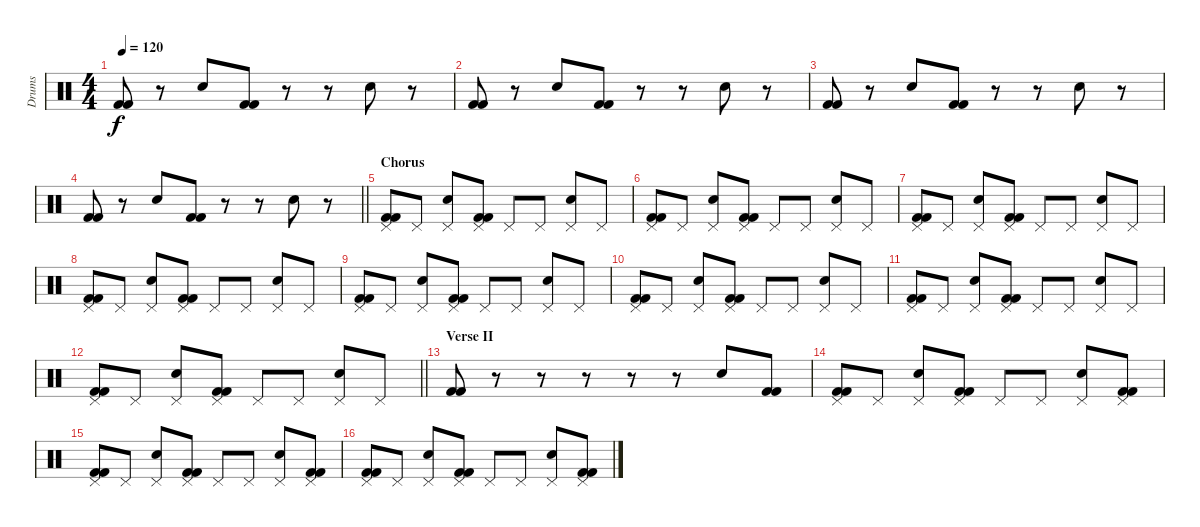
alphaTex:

\track ("Drums" "Drums") {instrument percussion}
\staff {score}
\articulation defaults
\ts (4 4)
\tempo 120
\clef neutral
\ks c
("Kick (hit) 2" "Kick (hit) 2").8{dy f} r.8 "Electric Snare (hit)".8 ("Kick (hit) 2" "Kick (hit) 2").8 r.8 r.8 "Electric Snare (hit)".8 r.8 |
("Kick (hit) 2" "Kick (hit) 2").8 r.8 "Electric Snare (hit)".8 ("Kick (hit) 2" "Kick (hit) 2").8 r.8 r.8 "Electric Snare (hit)".8 r.8 |
("Kick (hit) 2" "Kick (hit) 2").8 r.8 "Electric Snare (hit)".8 ("Kick (hit) 2" "Kick (hit) 2").8 r.8 r.8 "Electric Snare (hit)".8 r.8 |
\barLineRight lightlight
("Kick (hit) 2" "Kick (hit) 2").8 r.8 "Electric Snare (hit)".8 ("Kick (hit) 2" "Kick (hit) 2").8 r.8 r.8 "Electric Snare (hit)".8 r.8 |
\section ("" "Chorus ")
("Pedal Hi-Hat (hit)" "Kick (hit) 2" "Kick (hit) 2").8 "Pedal Hi-Hat (hit)".8 ("Electric Snare (hit)" "Pedal Hi-Hat (hit)").8 ("Pedal Hi-Hat (hit)" "Kick (hit) 2" "Kick (hit) 2").8 "Pedal Hi-Hat (hit)".8 "Pedal Hi-Hat (hit)".8 ("Electric Snare (hit)" "Pedal Hi-Hat (hit)").8 "Pedal Hi-Hat (hit)".8 |
("Pedal Hi-Hat (hit)" "Kick (hit) 2" "Kick (hit) 2").8 "Pedal Hi-Hat (hit)".8 ("Electric Snare (hit)" "Pedal Hi-Hat (hit)").8 ("Pedal Hi-Hat (hit)" "Kick (hit) 2" "Kick (hit) 2").8 "Pedal Hi-Hat (hit)".8 "Pedal Hi-Hat (hit)".8 ("Electric Snare (hit)" "Pedal Hi-Hat (hit)").8 "Pedal Hi-Hat (hit)".8 |
("Pedal Hi-Hat (hit)" "Kick (hit) 2" "Kick (hit) 2").8 "Pedal Hi-Hat (hit)".8 ("Electric Snare (hit)" "Pedal Hi-Hat (hit)").8 ("Pedal Hi-Hat (hit)" "Kick (hit) 2" "Kick (hit) 2").8 "Pedal Hi-Hat (hit)".8 "Pedal Hi-Hat (hit)".8 ("Electric Snare (hit)" "Pedal Hi-Hat (hit)").8 "Pedal Hi-Hat (hit)".8 |
("Pedal Hi-Hat (hit)" "Kick (hit) 2" "Kick (hit) 2").8 "Pedal Hi-Hat (hit)".8 ("Electric Snare (hit)" "Pedal Hi-Hat (hit)").8 ("Pedal Hi-Hat (hit)" "Kick (hit) 2" "Kick (hit) 2").8 "Pedal Hi-Hat (hit)".8 "Pedal Hi-Hat (hit)".8 ("Electric Snare (hit)" "Pedal Hi-Hat (hit)").8 "Pedal Hi-Hat (hit)".8 |
("Pedal Hi-Hat (hit)" "Kick (hit) 2" "Kick (hit) 2").8 "Pedal Hi-Hat (hit)".8 ("Electric Snare (hit)" "Pedal Hi-Hat (hit)").8 ("Pedal Hi-Hat (hit)" "Kick (hit) 2" "Kick (hit) 2").8 "Pedal Hi-Hat (hit)".8 "Pedal Hi-Hat (hit)".8 ("Electric Snare (hit)" "Pedal Hi-Hat (hit)").8 "Pedal Hi-Hat (hit)".8 |
("Pedal Hi-Hat (hit)" "Kick (hit) 2" "Kick (hit) 2").8 "Pedal Hi-Hat (hit)".8 ("Electric Snare (hit)" "Pedal Hi-Hat (hit)").8 ("Pedal Hi-Hat (hit)" "Kick (hit) 2" "Kick (hit) 2").8 "Pedal Hi-Hat (hit)".8 "Pedal Hi-Hat (hit)".8 ("Electric Snare (hit)" "Pedal Hi-Hat (hit)").8 "Pedal Hi-Hat (hit)".8 |
("Pedal Hi-Hat (hit)" "Kick (hit) 2" "Kick (hit) 2").8 "Pedal Hi-Hat (hit)".8 ("Electric Snare (hit)" "Pedal Hi-Hat (hit)").8 ("Pedal Hi-Hat (hit)" "Kick (hit) 2" "Kick (hit) 2").8 "Pedal Hi-Hat (hit)".8 "Pedal Hi-Hat (hit)".8 ("Electric Snare (hit)" "Pedal Hi-Hat (hit)").8 "Pedal Hi-Hat (hit)".8 |
\barLineRight lightlight
("Pedal Hi-Hat (hit)" "Kick (hit) 2" "Kick (hit) 2").8 "Pedal Hi-Hat (hit)".8 ("Electric Snare (hit)" "Pedal Hi-Hat (hit)").8 ("Pedal Hi-Hat (hit)" "Kick (hit) 2" "Kick (hit) 2").8 "Pedal Hi-Hat (hit)".8 "Pedal Hi-Hat (hit)".8 ("Electric Snare (hit)" "Pedal Hi-Hat (hit)").8 "Pedal Hi-Hat (hit)".8 |
\section ("" "Verse II")
("Kick (hit) 2" "Kick (hit) 2").8 r.8 r.8 r.8 r.8 r.8 "Electric Snare (hit)".8 ("Kick (hit) 2" "Kick (hit) 2").8 |
("Pedal Hi-Hat (hit)" "Kick (hit) 2" "Kick (hit) 2").8 "Pedal Hi-Hat (hit)".8 ("Electric Snare (hit)" "Pedal Hi-Hat (hit)").8 ("Pedal Hi-Hat (hit)" "Kick (hit) 2" "Kick (hit) 2").8 "Pedal Hi-Hat (hit)".8 "Pedal Hi-Hat (hit)".8 ("Electric Snare (hit)" "Pedal Hi-Hat (hit)").8 ("Pedal Hi-Hat (hit)" "Kick (hit) 2" "Kick (hit) 2").8 |
("Pedal Hi-Hat (hit)" "Kick (hit) 2" "Kick (hit) 2").8 "Pedal Hi-Hat (hit)".8 ("Electric Snare (hit)" "Pedal Hi-Hat (hit)").8 ("Pedal Hi-Hat (hit)" "Kick (hit) 2" "Kick (hit) 2").8 "Pedal Hi-Hat (hit)".8 "Pedal Hi-Hat (hit)".8 ("Electric Snare (hit)" "Pedal Hi-Hat (hit)").8 ("Pedal Hi-Hat (hit)" "Kick (hit) 2" "Kick (hit) 2").8 |
("Pedal Hi-Hat (hit)" "Kick (hit) 2" "Kick (hit) 2").8 "Pedal Hi-Hat (hit)".8 ("Electric Snare (hit)" "Pedal Hi-Hat (hit)").8 ("Pedal Hi-Hat (hit)" "Kick (hit) 2" "Kick (hit) 2").8 "Pedal Hi-Hat (hit)".8 "Pedal Hi-Hat (hit)".8 ("Electric Snare (hit)" "Pedal Hi-Hat (hit)").8 ("Pedal Hi-Hat (hit)" "Kick (hit) 2" "Kick (hit) 2").8
